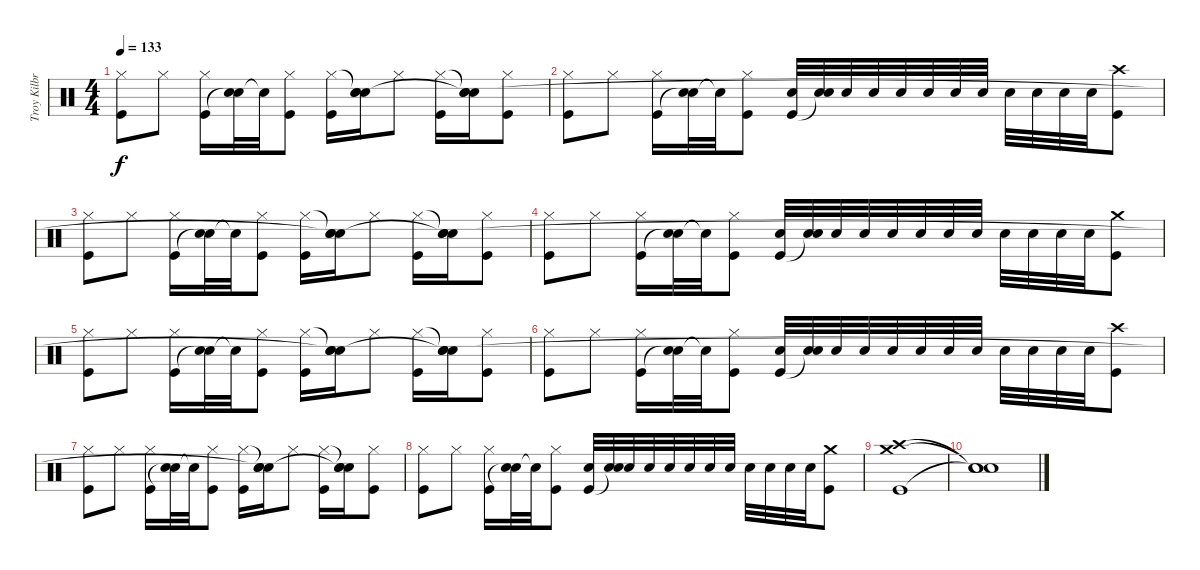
\track ("Troy Kilbride" "Troy Kilbr") {instrument percussion}
\staff {score}
\articulation defaults
\ts (4 4)
\tempo 133
\clef neutral
\ks c
("Hi-Hat (closed)" "Kick (hit)").8{dy f} "Hi-Hat (closed)".8 ("Hi-Hat (closed)" "Kick (hit)").16 ("Electric Snare (hit)" "Snare (hit)"{t}).32 "Snare (hit)"{t}.32 ("Hi-Hat (closed)" "Kick (hit)").8 ("Hi-Hat (closed)" "Kick (hit)").16 ("Snare (hit)"{t} "Electric Snare (hit)" "Snare (hit)"{t}).16 "Hi-Hat (closed)".8 ("Hi-Hat (closed)" "Kick (hit)").16 ("Snare (hit)"{t} "Electric Snare (hit)" "Snare (hit)"{t}).16 ("Hi-Hat (closed)" "Kick (hit)").8 |
("Hi-Hat (closed)" "Kick (hit)").8 "Hi-Hat (closed)".8 ("Hi-Hat (closed)" "Kick (hit)").16 ("Electric Snare (hit)" "Snare (hit)"{t}).32 "Snare (hit)"{t}.32 ("Hi-Hat (closed)" "Kick (hit)").8 ("Electric Snare (hit)" "Kick (hit)").32 ("Electric Snare (hit)" "Snare (hit)"{t}).32 "Electric Snare (hit)".32 "Electric Snare (hit)".32 "Electric Snare (hit)".32 "Electric Snare (hit)".32 "Electric Snare (hit)".32 "Electric Snare (hit)".32 "Electric Snare (hit)".32 "Electric Snare (hit)".32 "Electric Snare (hit)".32 "Electric Snare (hit)".32 ("Crash high (hit)" "Kick (hit)").8 |
("Hi-Hat (closed)" "Kick (hit)").8 "Hi-Hat (closed)".8 ("Hi-Hat (closed)" "Kick (hit)").16 ("Electric Snare (hit)" "Snare (hit)"{t}).32 "Snare (hit)"{t}.32 ("Hi-Hat (closed)" "Kick (hit)").8 ("Hi-Hat (closed)" "Kick (hit)").16 ("Snare (hit)"{t} "Electric Snare (hit)" "Snare (hit)"{t}).16 "Hi-Hat (closed)".8 ("Hi-Hat (closed)" "Kick (hit)").16 ("Snare (hit)"{t} "Electric Snare (hit)" "Snare (hit)"{t}).16 ("Hi-Hat (closed)" "Kick (hit)").8 |
("Hi-Hat (closed)" "Kick (hit)").8 "Hi-Hat (closed)".8 ("Hi-Hat (closed)" "Kick (hit)").16 ("Electric Snare (hit)" "Snare (hit)"{t}).32 "Snare (hit)"{t}.32 ("Hi-Hat (closed)" "Kick (hit)").8 ("Electric Snare (hit)" "Kick (hit)").32 ("Electric Snare (hit)" "Snare (hit)"{t}).32 "Electric Snare (hit)".32 "Electric Snare (hit)".32 "Electric Snare (hit)".32 "Electric Snare (hit)".32 "Electric Snare (hit)".32 "Electric Snare (hit)".32 "Electric Snare (hit)".32 "Electric Snare (hit)".32 "Electric Snare (hit)".32 "Electric Snare (hit)".32 ("Crash medium (hit)" "Kick (hit)").8 |
("Hi-Hat (closed)" "Kick (hit)").8 "Hi-Hat (closed)".8 ("Hi-Hat (closed)" "Kick (hit)").16 ("Electric Snare (hit)" "Snare (hit)"{t}).32 "Snare (hit)"{t}.32 ("Hi-Hat (closed)" "Kick (hit)").8 ("Hi-Hat (closed)" "Kick (hit)").16 ("Snare (hit)"{t} "Electric Snare (hit)" "Snare (hit)"{t}).16 "Hi-Hat (closed)".8 ("Hi-Hat (closed)" "Kick (hit)").16 ("Snare (hit)"{t} "Electric Snare (hit)" "Snare (hit)"{t}).16 ("Hi-Hat (closed)" "Kick (hit)").8 |
("Hi-Hat (closed)" "Kick (hit)").8 "Hi-Hat (closed)".8 ("Hi-Hat (closed)" "Kick (hit)").16 ("Electric Snare (hit)" "Snare (hit)"{t}).32 "Snare (hit)"{t}.32 ("Hi-Hat (closed)" "Kick (hit)").8 ("Electric Snare (hit)" "Kick (hit)").32 ("Electric Snare (hit)" "Snare (hit)"{t}).32 "Electric Snare (hit)".32 "Electric Snare (hit)".32 "Electric Snare (hit)".32 "Electric Snare (hit)".32 "Electric Snare (hit)".32 "Electric Snare (hit)".32 "Electric Snare (hit)".32 "Electric Snare (hit)".32 "Electric Snare (hit)".32 "Electric Snare (hit)".32 ("Crash high (hit)" "Kick (hit)").8 |
("Hi-Hat (closed)" "Kick (hit)").8 "Hi-Hat (closed)".8 ("Hi-Hat (closed)" "Kick (hit)").16 ("Electric Snare (hit)" "Snare (hit)"{t}).32 "Snare (hit)"{t}.32 ("Hi-Hat (closed)" "Kick (hit)").8 ("Hi-Hat (closed)" "Kick (hit)").16 ("Snare (hit)"{t} "Electric Snare (hit)" "Snare (hit)"{t}).16 "Hi-Hat (closed)".8 ("Hi-Hat (closed)" "Kick (hit)").16 ("Snare (hit)"{t} "Electric Snare (hit)" "Snare (hit)"{t}).16 ("Hi-Hat (closed)" "Kick (hit)").8 |
("Hi-Hat (closed)" "Kick (hit)").8 "Hi-Hat (closed)".8 ("Hi-Hat (closed)" "Kick (hit)").16 ("Electric Snare (hit)" "Snare (hit)"{t}).32 "Snare (hit)"{t}.32 ("Hi-Hat (closed)" "Kick (hit)").8 ("Electric Snare (hit)" "Kick (hit)").32 ("Electric Snare (hit)" "Snare (hit)"{t}).32 "Electric Snare (hit)".32 "Electric Snare (hit)".32 "Electric Snare (hit)".32 "Electric Snare (hit)".32 "Electric Snare (hit)".32 "Electric Snare (hit)".32 "Electric Snare (hit)".32 "Electric Snare (hit)".32 "Electric Snare (hit)".32 "Electric Snare (hit)".32 ("Crash medium (hit)" "Kick (hit)").8 |
("Crash high (hit)" "Crash medium (hit)" "Kick (hit)").1 |
("Snare (hit)"{t} "Snare (hit)"{t} "Snare (hit)"{t}).1
